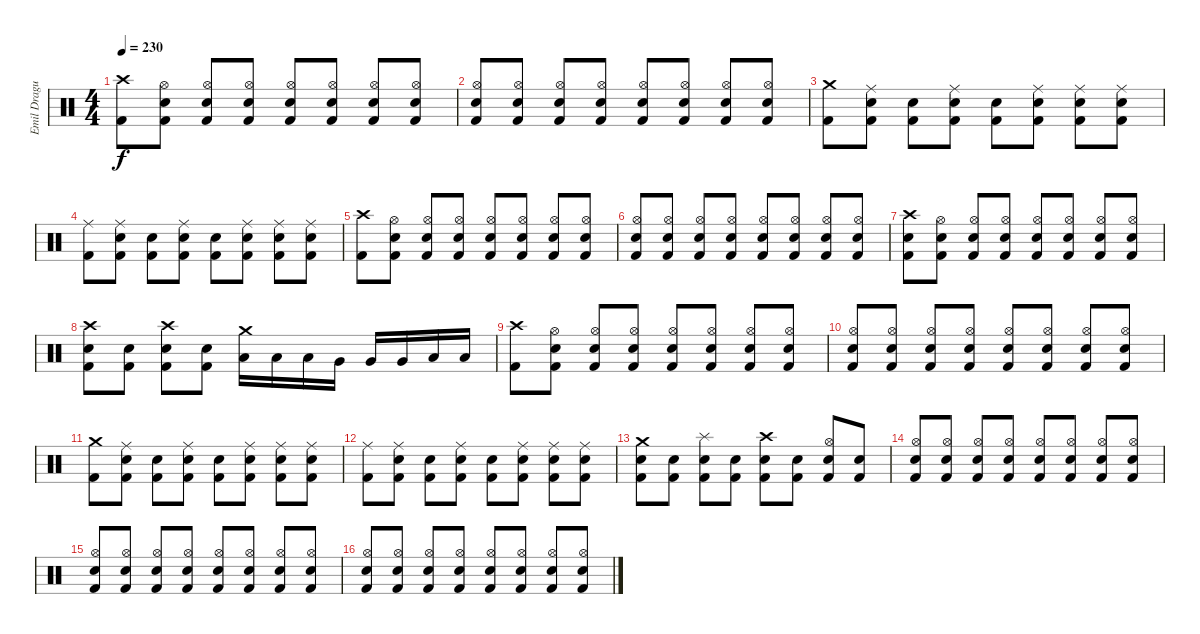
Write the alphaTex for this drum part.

\track ("Emil Dragutinovic" "Emil Dragu") {instrument percussion}
\staff {score}
\articulation defaults
\ts (4 4)
\tempo 230
\clef neutral
\ks c
("Crash high (hit)" "Kick (hit) 2").8{dy f} ("Hi-Hat (open)" "Electric Snare (hit)" "Kick (hit) 2").8 ("Hi-Hat (open)" "Electric Snare (hit)" "Kick (hit) 2").8 ("Hi-Hat (open)" "Electric Snare (hit)" "Kick (hit) 2").8 ("Hi-Hat (open)" "Electric Snare (hit)" "Kick (hit) 2").8 ("Hi-Hat (open)" "Electric Snare (hit)" "Kick (hit) 2").8 ("Hi-Hat (open)" "Electric Snare (hit)" "Kick (hit) 2").8 ("Hi-Hat (open)" "Electric Snare (hit)" "Kick (hit) 2").8 |
("Hi-Hat (open)" "Electric Snare (hit)" "Kick (hit) 2").8 ("Hi-Hat (open)" "Electric Snare (hit)" "Kick (hit) 2").8 ("Hi-Hat (open)" "Electric Snare (hit)" "Kick (hit) 2").8 ("Hi-Hat (open)" "Electric Snare (hit)" "Kick (hit) 2").8 ("Hi-Hat (open)" "Electric Snare (hit)" "Kick (hit) 2").8 ("Hi-Hat (open)" "Electric Snare (hit)" "Kick (hit) 2").8 ("Hi-Hat (open)" "Electric Snare (hit)" "Kick (hit) 2").8 ("Hi-Hat (open)" "Electric Snare (hit)" "Kick (hit) 2").8 |
("Crash medium (hit)" "Kick (hit) 2").8 ("Ride (middle)" "Electric Snare (hit)" "Kick (hit) 2").8 ("Electric Snare (hit)" "Kick (hit) 2").8 ("Ride (middle)" "Electric Snare (hit)" "Kick (hit) 2").8 ("Electric Snare (hit)" "Kick (hit) 2").8 ("Ride (middle)" "Electric Snare (hit)" "Kick (hit) 2").8 ("Ride (middle)" "Electric Snare (hit)" "Kick (hit) 2").8 ("Ride (middle)" "Electric Snare (hit)" "Kick (hit) 2").8 |
("Ride (middle)" "Kick (hit) 2").8 ("Ride (middle)" "Electric Snare (hit)" "Kick (hit) 2").8 ("Electric Snare (hit)" "Kick (hit) 2").8 ("Ride (middle)" "Electric Snare (hit)" "Kick (hit) 2").8 ("Electric Snare (hit)" "Kick (hit) 2").8 ("Ride (middle)" "Electric Snare (hit)" "Kick (hit) 2").8 ("Ride (middle)" "Electric Snare (hit)" "Kick (hit) 2").8 ("Ride (middle)" "Electric Snare (hit)" "Kick (hit) 2").8 |
("Crash high (hit)" "Kick (hit) 2").8 ("Hi-Hat (open)" "Electric Snare (hit)" "Kick (hit) 2").8 ("Hi-Hat (open)" "Electric Snare (hit)" "Kick (hit) 2").8 ("Hi-Hat (open)" "Electric Snare (hit)" "Kick (hit) 2").8 ("Hi-Hat (open)" "Electric Snare (hit)" "Kick (hit) 2").8 ("Hi-Hat (open)" "Electric Snare (hit)" "Kick (hit) 2").8 ("Hi-Hat (open)" "Electric Snare (hit)" "Kick (hit) 2").8 ("Hi-Hat (open)" "Electric Snare (hit)" "Kick (hit) 2").8 |
("Hi-Hat (open)" "Electric Snare (hit)" "Kick (hit) 2").8 ("Hi-Hat (open)" "Electric Snare (hit)" "Kick (hit) 2").8 ("Hi-Hat (open)" "Electric Snare (hit)" "Kick (hit) 2").8 ("Hi-Hat (open)" "Electric Snare (hit)" "Kick (hit) 2").8 ("Hi-Hat (open)" "Electric Snare (hit)" "Kick (hit) 2").8 ("Hi-Hat (open)" "Electric Snare (hit)" "Kick (hit) 2").8 ("Hi-Hat (open)" "Electric Snare (hit)" "Kick (hit) 2").8 ("Hi-Hat (open)" "Electric Snare (hit)" "Kick (hit) 2").8 |
("Crash high (hit)" "Electric Snare (hit)" "Kick (hit) 2").8 ("Hi-Hat (open)" "Electric Snare (hit)" "Kick (hit) 2").8 ("Hi-Hat (open)" "Electric Snare (hit)" "Kick (hit) 2").8 ("Hi-Hat (open)" "Electric Snare (hit)" "Kick (hit) 2").8 ("Hi-Hat (open)" "Electric Snare (hit)" "Kick (hit) 2").8 ("Hi-Hat (open)" "Electric Snare (hit)" "Kick (hit) 2").8 ("Hi-Hat (open)" "Electric Snare (hit)" "Kick (hit) 2").8 ("Hi-Hat (open)" "Electric Snare (hit)" "Kick (hit) 2").8 |
("Crash high (hit)" "Electric Snare (hit)" "Kick (hit) 2").8 ("Electric Snare (hit)" "Kick (hit) 2").8 ("Crash high (hit)" "Electric Snare (hit)" "Kick (hit) 2").8 ("Electric Snare (hit)" "Kick (hit) 2").8 ("Crash medium (hit)" "Low Tom (hit)").16 "Low Tom (hit)".16 "Low Tom (hit)".16 "Very Low Tom (hit)".16 "Very Low Tom (hit)".16 "Very Low Tom (hit)".16 "Low Floor Tom (hit)".16 "Low Floor Tom (hit)".16 |
("Crash high (hit)" "Kick (hit) 2").8 ("Hi-Hat (open)" "Electric Snare (hit)" "Kick (hit) 2").8 ("Hi-Hat (open)" "Electric Snare (hit)" "Kick (hit) 2").8 ("Hi-Hat (open)" "Electric Snare (hit)" "Kick (hit) 2").8 ("Hi-Hat (open)" "Electric Snare (hit)" "Kick (hit) 2").8 ("Hi-Hat (open)" "Electric Snare (hit)" "Kick (hit) 2").8 ("Hi-Hat (open)" "Electric Snare (hit)" "Kick (hit) 2").8 ("Hi-Hat (open)" "Electric Snare (hit)" "Kick (hit) 2").8 |
("Hi-Hat (open)" "Electric Snare (hit)" "Kick (hit) 2").8 ("Hi-Hat (open)" "Electric Snare (hit)" "Kick (hit) 2").8 ("Hi-Hat (open)" "Electric Snare (hit)" "Kick (hit) 2").8 ("Hi-Hat (open)" "Electric Snare (hit)" "Kick (hit) 2").8 ("Hi-Hat (open)" "Electric Snare (hit)" "Kick (hit) 2").8 ("Hi-Hat (open)" "Electric Snare (hit)" "Kick (hit) 2").8 ("Hi-Hat (open)" "Electric Snare (hit)" "Kick (hit) 2").8 ("Hi-Hat (open)" "Electric Snare (hit)" "Kick (hit) 2").8 |
("Crash medium (hit)" "Kick (hit) 2").8 ("Ride (middle)" "Electric Snare (hit)" "Kick (hit) 2").8 ("Electric Snare (hit)" "Kick (hit) 2").8 ("Ride (middle)" "Electric Snare (hit)" "Kick (hit) 2").8 ("Electric Snare (hit)" "Kick (hit) 2").8 ("Ride (middle)" "Electric Snare (hit)" "Kick (hit) 2").8 ("Ride (middle)" "Electric Snare (hit)" "Kick (hit) 2").8 ("Ride (middle)" "Electric Snare (hit)" "Kick (hit) 2").8 |
("Ride (middle)" "Kick (hit) 2").8 ("Ride (middle)" "Electric Snare (hit)" "Kick (hit) 2").8 ("Electric Snare (hit)" "Kick (hit) 2").8 ("Ride (middle)" "Electric Snare (hit)" "Kick (hit) 2").8 ("Electric Snare (hit)" "Kick (hit) 2").8 ("Ride (middle)" "Electric Snare (hit)" "Kick (hit) 2").8 ("Ride (middle)" "Electric Snare (hit)" "Kick (hit) 2").8 ("Ride (middle)" "Electric Snare (hit)" "Kick (hit) 2").8 |
("Crash medium (hit)" "Electric Snare (hit)" "Kick (hit) 2").8 ("Electric Snare (hit)" "Kick (hit) 2").8 ("Splash (hit)" "Electric Snare (hit)" "Kick (hit) 2").8 ("Electric Snare (hit)" "Kick (hit) 2").8 ("Crash high (hit)" "Electric Snare (hit)" "Kick (hit) 2").8 ("Electric Snare (hit)" "Kick (hit) 2").8 ("Hi-Hat (open)" "Electric Snare (hit)" "Kick (hit) 2").8 ("Electric Snare (hit)" "Kick (hit) 2").8 |
("Hi-Hat (open)" "Electric Snare (hit)" "Kick (hit) 2").8 ("Hi-Hat (open)" "Electric Snare (hit)" "Kick (hit) 2").8 ("Hi-Hat (open)" "Electric Snare (hit)" "Kick (hit) 2").8 ("Hi-Hat (open)" "Electric Snare (hit)" "Kick (hit) 2").8 ("Hi-Hat (open)" "Electric Snare (hit)" "Kick (hit) 2").8 ("Hi-Hat (open)" "Electric Snare (hit)" "Kick (hit) 2").8 ("Hi-Hat (open)" "Electric Snare (hit)" "Kick (hit) 2").8 ("Hi-Hat (open)" "Electric Snare (hit)" "Kick (hit) 2").8 |
("Hi-Hat (open)" "Electric Snare (hit)" "Kick (hit) 2").8 ("Hi-Hat (open)" "Electric Snare (hit)" "Kick (hit) 2").8 ("Hi-Hat (open)" "Electric Snare (hit)" "Kick (hit) 2").8 ("Hi-Hat (open)" "Electric Snare (hit)" "Kick (hit) 2").8 ("Hi-Hat (open)" "Electric Snare (hit)" "Kick (hit) 2").8 ("Hi-Hat (open)" "Electric Snare (hit)" "Kick (hit) 2").8 ("Hi-Hat (open)" "Electric Snare (hit)" "Kick (hit) 2").8 ("Hi-Hat (open)" "Electric Snare (hit)" "Kick (hit) 2").8 |
("Hi-Hat (open)" "Electric Snare (hit)" "Kick (hit) 2").8 ("Hi-Hat (open)" "Electric Snare (hit)" "Kick (hit) 2").8 ("Hi-Hat (open)" "Electric Snare (hit)" "Kick (hit) 2").8 ("Hi-Hat (open)" "Electric Snare (hit)" "Kick (hit) 2").8 ("Hi-Hat (open)" "Electric Snare (hit)" "Kick (hit) 2").8 ("Hi-Hat (open)" "Electric Snare (hit)" "Kick (hit) 2").8 ("Hi-Hat (open)" "Electric Snare (hit)" "Kick (hit) 2").8 ("Hi-Hat (open)" "Electric Snare (hit)" "Kick (hit) 2").8
